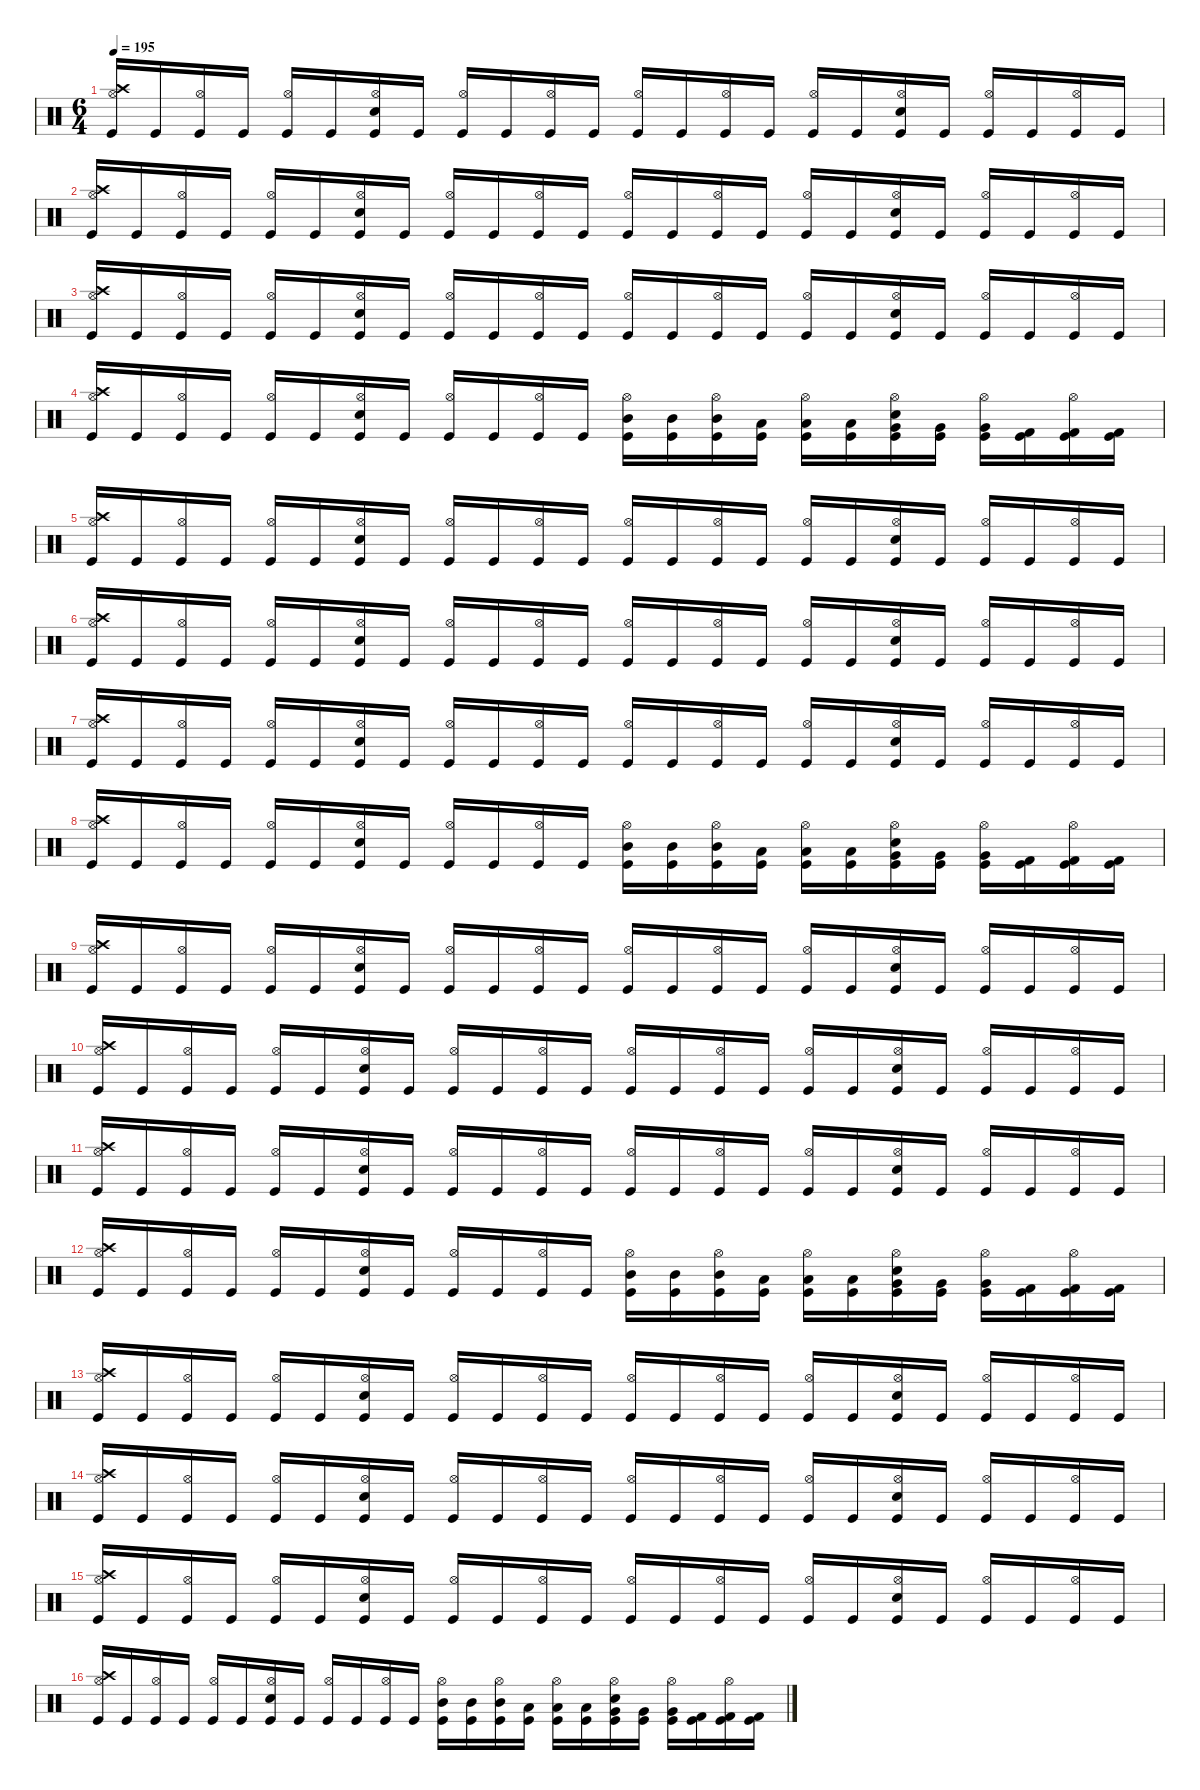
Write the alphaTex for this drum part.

\defaultSystemsLayout 4
\hideDynamics
\bracketExtendMode nobrackets
\singleTrackTrackNamePolicy hidden
\multiTrackTrackNamePolicy hidden
\firstSystemTrackNameMode fullname
\firstSystemTrackNameOrientation horizontal
\otherSystemsTrackNameOrientation horizontal
\track ("Percussion" "drm.") {defaultSystemsLayout 2 instrument percussion}
\staff {score}
\articulation defaults
\ts (6 4)
\tempo 195
\clef neutral
\ks c
("Crash high (hit)" "Hi-Hat (open)" "Kick (hit)").16{dy f beam Up} "Kick (hit)".16{beam Up} ("Hi-Hat (open)" "Kick (hit)").16{beam Up} "Kick (hit)".16{beam Up} ("Hi-Hat (open)" "Kick (hit)").16{beam Up} "Kick (hit)".16{beam Up} ("Snare (hit) 2" "Hi-Hat (open)" "Kick (hit)").16{beam Up} "Kick (hit)".16{beam Up} ("Hi-Hat (open)" "Kick (hit)").16{beam Up} "Kick (hit)".16{beam Up} ("Hi-Hat (open)" "Kick (hit)").16{beam Up} "Kick (hit)".16{beam Up} ("Hi-Hat (open)" "Kick (hit)").16{beam Up} "Kick (hit)".16{beam Up} ("Hi-Hat (open)" "Kick (hit)").16{beam Up} "Kick (hit)".16{beam Up} ("Hi-Hat (open)" "Kick (hit)").16{beam Up} "Kick (hit)".16{beam Up} ("Snare (hit) 2" "Hi-Hat (open)" "Kick (hit)").16{beam Up} "Kick (hit)".16{beam Up} ("Hi-Hat (open)" "Kick (hit)").16{beam Up} "Kick (hit)".16{beam Up} ("Hi-Hat (open)" "Kick (hit)").16{beam Up} "Kick (hit)".16{beam Up} |
("Crash high (hit)" "Hi-Hat (open)" "Kick (hit)").16{beam Up} "Kick (hit)".16{beam Up} ("Hi-Hat (open)" "Kick (hit)").16{beam Up} "Kick (hit)".16{beam Up} ("Hi-Hat (open)" "Kick (hit)").16{beam Up} "Kick (hit)".16{beam Up} ("Snare (hit) 2" "Hi-Hat (open)" "Kick (hit)").16{beam Up} "Kick (hit)".16{beam Up} ("Hi-Hat (open)" "Kick (hit)").16{beam Up} "Kick (hit)".16{beam Up} ("Hi-Hat (open)" "Kick (hit)").16{beam Up} "Kick (hit)".16{beam Up} ("Hi-Hat (open)" "Kick (hit)").16{beam Up} "Kick (hit)".16{beam Up} ("Hi-Hat (open)" "Kick (hit)").16{beam Up} "Kick (hit)".16{beam Up} ("Hi-Hat (open)" "Kick (hit)").16{beam Up} "Kick (hit)".16{beam Up} ("Snare (hit) 2" "Hi-Hat (open)" "Kick (hit)").16{beam Up} "Kick (hit)".16{beam Up} ("Hi-Hat (open)" "Kick (hit)").16{beam Up} "Kick (hit)".16{beam Up} ("Hi-Hat (open)" "Kick (hit)").16{beam Up} "Kick (hit)".16{beam Up} |
("Crash high (hit)" "Hi-Hat (open)" "Kick (hit)").16{beam Up} "Kick (hit)".16{beam Up} ("Hi-Hat (open)" "Kick (hit)").16{beam Up} "Kick (hit)".16{beam Up} ("Hi-Hat (open)" "Kick (hit)").16{beam Up} "Kick (hit)".16{beam Up} ("Snare (hit) 2" "Hi-Hat (open)" "Kick (hit)").16{beam Up} "Kick (hit)".16{beam Up} ("Hi-Hat (open)" "Kick (hit)").16{beam Up} "Kick (hit)".16{beam Up} ("Hi-Hat (open)" "Kick (hit)").16{beam Up} "Kick (hit)".16{beam Up} ("Hi-Hat (open)" "Kick (hit)").16{beam Up} "Kick (hit)".16{beam Up} ("Hi-Hat (open)" "Kick (hit)").16{beam Up} "Kick (hit)".16{beam Up} ("Hi-Hat (open)" "Kick (hit)").16{beam Up} "Kick (hit)".16{beam Up} ("Snare (hit) 2" "Hi-Hat (open)" "Kick (hit)").16{beam Up} "Kick (hit)".16{beam Up} ("Hi-Hat (open)" "Kick (hit)").16{beam Up} "Kick (hit)".16{beam Up} ("Hi-Hat (open)" "Kick (hit)").16{beam Up} "Kick (hit)".16{beam Up} |
("Crash high (hit)" "Hi-Hat (open)" "Kick (hit)").16{beam Up} "Kick (hit)".16{beam Up} ("Hi-Hat (open)" "Kick (hit)").16{beam Up} "Kick (hit)".16{beam Up} ("Hi-Hat (open)" "Kick (hit)").16{beam Up} "Kick (hit)".16{beam Up} ("Snare (hit) 2" "Hi-Hat (open)" "Kick (hit)").16{beam Up} "Kick (hit)".16{beam Up} ("Hi-Hat (open)" "Kick (hit)").16{beam Up} "Kick (hit)".16{beam Up} ("Hi-Hat (open)" "Kick (hit)").16{beam Up} "Kick (hit)".16{beam Up} ("Hi-Hat (open)" "Mid Tom (hit)" "Kick (hit)").16{beam Down} ("Mid Tom (hit)" "Kick (hit)").16{beam Down} ("Hi-Hat (open)" "Mid Tom (hit)" "Kick (hit)").16{beam Down} ("Low Tom (hit)" "Kick (hit)").16{beam Down} ("Hi-Hat (open)" "Low Tom (hit)" "Kick (hit)").16{beam Down} ("Low Tom (hit)" "Kick (hit)").16{beam Down} ("Snare (hit) 2" "Hi-Hat (open)" "Very Low Tom (hit)" "Kick (hit)").16{beam Down} ("Very Low Tom (hit)" "Kick (hit)").16{beam Down} ("Hi-Hat (open)" "Very Low Tom (hit)" "Kick (hit)").16{beam Down} ("Kick (hit) 2" "Kick (hit)").16{beam Down} ("Hi-Hat (open)" "Kick (hit) 2" "Kick (hit)").16{beam Down} ("Kick (hit) 2" "Kick (hit)").16{beam Down} |
("Crash high (hit)" "Hi-Hat (open)" "Kick (hit)").16{beam Up} "Kick (hit)".16{beam Up} ("Hi-Hat (open)" "Kick (hit)").16{beam Up} "Kick (hit)".16{beam Up} ("Hi-Hat (open)" "Kick (hit)").16{beam Up} "Kick (hit)".16{beam Up} ("Snare (hit) 2" "Hi-Hat (open)" "Kick (hit)").16{beam Up} "Kick (hit)".16{beam Up} ("Hi-Hat (open)" "Kick (hit)").16{beam Up} "Kick (hit)".16{beam Up} ("Hi-Hat (open)" "Kick (hit)").16{beam Up} "Kick (hit)".16{beam Up} ("Hi-Hat (open)" "Kick (hit)").16{beam Up} "Kick (hit)".16{beam Up} ("Hi-Hat (open)" "Kick (hit)").16{beam Up} "Kick (hit)".16{beam Up} ("Hi-Hat (open)" "Kick (hit)").16{beam Up} "Kick (hit)".16{beam Up} ("Snare (hit) 2" "Hi-Hat (open)" "Kick (hit)").16{beam Up} "Kick (hit)".16{beam Up} ("Hi-Hat (open)" "Kick (hit)").16{beam Up} "Kick (hit)".16{beam Up} ("Hi-Hat (open)" "Kick (hit)").16{beam Up} "Kick (hit)".16{beam Up} |
("Crash high (hit)" "Hi-Hat (open)" "Kick (hit)").16{beam Up} "Kick (hit)".16{beam Up} ("Hi-Hat (open)" "Kick (hit)").16{beam Up} "Kick (hit)".16{beam Up} ("Hi-Hat (open)" "Kick (hit)").16{beam Up} "Kick (hit)".16{beam Up} ("Snare (hit) 2" "Hi-Hat (open)" "Kick (hit)").16{beam Up} "Kick (hit)".16{beam Up} ("Hi-Hat (open)" "Kick (hit)").16{beam Up} "Kick (hit)".16{beam Up} ("Hi-Hat (open)" "Kick (hit)").16{beam Up} "Kick (hit)".16{beam Up} ("Hi-Hat (open)" "Kick (hit)").16{beam Up} "Kick (hit)".16{beam Up} ("Hi-Hat (open)" "Kick (hit)").16{beam Up} "Kick (hit)".16{beam Up} ("Hi-Hat (open)" "Kick (hit)").16{beam Up} "Kick (hit)".16{beam Up} ("Snare (hit) 2" "Hi-Hat (open)" "Kick (hit)").16{beam Up} "Kick (hit)".16{beam Up} ("Hi-Hat (open)" "Kick (hit)").16{beam Up} "Kick (hit)".16{beam Up} ("Hi-Hat (open)" "Kick (hit)").16{beam Up} "Kick (hit)".16{beam Up} |
("Crash high (hit)" "Hi-Hat (open)" "Kick (hit)").16{beam Up} "Kick (hit)".16{beam Up} ("Hi-Hat (open)" "Kick (hit)").16{beam Up} "Kick (hit)".16{beam Up} ("Hi-Hat (open)" "Kick (hit)").16{beam Up} "Kick (hit)".16{beam Up} ("Snare (hit) 2" "Hi-Hat (open)" "Kick (hit)").16{beam Up} "Kick (hit)".16{beam Up} ("Hi-Hat (open)" "Kick (hit)").16{beam Up} "Kick (hit)".16{beam Up} ("Hi-Hat (open)" "Kick (hit)").16{beam Up} "Kick (hit)".16{beam Up} ("Hi-Hat (open)" "Kick (hit)").16{beam Up} "Kick (hit)".16{beam Up} ("Hi-Hat (open)" "Kick (hit)").16{beam Up} "Kick (hit)".16{beam Up} ("Hi-Hat (open)" "Kick (hit)").16{beam Up} "Kick (hit)".16{beam Up} ("Snare (hit) 2" "Hi-Hat (open)" "Kick (hit)").16{beam Up} "Kick (hit)".16{beam Up} ("Hi-Hat (open)" "Kick (hit)").16{beam Up} "Kick (hit)".16{beam Up} ("Hi-Hat (open)" "Kick (hit)").16{beam Up} "Kick (hit)".16{beam Up} |
("Crash high (hit)" "Hi-Hat (open)" "Kick (hit)").16{beam Up} "Kick (hit)".16{beam Up} ("Hi-Hat (open)" "Kick (hit)").16{beam Up} "Kick (hit)".16{beam Up} ("Hi-Hat (open)" "Kick (hit)").16{beam Up} "Kick (hit)".16{beam Up} ("Snare (hit) 2" "Hi-Hat (open)" "Kick (hit)").16{beam Up} "Kick (hit)".16{beam Up} ("Hi-Hat (open)" "Kick (hit)").16{beam Up} "Kick (hit)".16{beam Up} ("Hi-Hat (open)" "Kick (hit)").16{beam Up} "Kick (hit)".16{beam Up} ("Hi-Hat (open)" "Mid Tom (hit)" "Kick (hit)").16{beam Down} ("Mid Tom (hit)" "Kick (hit)").16{beam Down} ("Hi-Hat (open)" "Mid Tom (hit)" "Kick (hit)").16{beam Down} ("Low Tom (hit)" "Kick (hit)").16{beam Down} ("Hi-Hat (open)" "Low Tom (hit)" "Kick (hit)").16{beam Down} ("Low Tom (hit)" "Kick (hit)").16{beam Down} ("Snare (hit) 2" "Hi-Hat (open)" "Very Low Tom (hit)" "Kick (hit)").16{beam Down} ("Very Low Tom (hit)" "Kick (hit)").16{beam Down} ("Hi-Hat (open)" "Very Low Tom (hit)" "Kick (hit)").16{beam Down} ("Kick (hit) 2" "Kick (hit)").16{beam Down} ("Hi-Hat (open)" "Kick (hit) 2" "Kick (hit)").16{beam Down} ("Kick (hit) 2" "Kick (hit)").16{beam Down} |
("Crash high (hit)" "Hi-Hat (open)" "Kick (hit)").16{beam Up} "Kick (hit)".16{beam Up} ("Hi-Hat (open)" "Kick (hit)").16{beam Up} "Kick (hit)".16{beam Up} ("Hi-Hat (open)" "Kick (hit)").16{beam Up} "Kick (hit)".16{beam Up} ("Snare (hit) 2" "Hi-Hat (open)" "Kick (hit)").16{beam Up} "Kick (hit)".16{beam Up} ("Hi-Hat (open)" "Kick (hit)").16{beam Up} "Kick (hit)".16{beam Up} ("Hi-Hat (open)" "Kick (hit)").16{beam Up} "Kick (hit)".16{beam Up} ("Hi-Hat (open)" "Kick (hit)").16{beam Up} "Kick (hit)".16{beam Up} ("Hi-Hat (open)" "Kick (hit)").16{beam Up} "Kick (hit)".16{beam Up} ("Hi-Hat (open)" "Kick (hit)").16{beam Up} "Kick (hit)".16{beam Up} ("Snare (hit) 2" "Hi-Hat (open)" "Kick (hit)").16{beam Up} "Kick (hit)".16{beam Up} ("Hi-Hat (open)" "Kick (hit)").16{beam Up} "Kick (hit)".16{beam Up} ("Hi-Hat (open)" "Kick (hit)").16{beam Up} "Kick (hit)".16{beam Up} |
("Crash high (hit)" "Hi-Hat (open)" "Kick (hit)").16{beam Up} "Kick (hit)".16{beam Up} ("Hi-Hat (open)" "Kick (hit)").16{beam Up} "Kick (hit)".16{beam Up} ("Hi-Hat (open)" "Kick (hit)").16{beam Up} "Kick (hit)".16{beam Up} ("Snare (hit) 2" "Hi-Hat (open)" "Kick (hit)").16{beam Up} "Kick (hit)".16{beam Up} ("Hi-Hat (open)" "Kick (hit)").16{beam Up} "Kick (hit)".16{beam Up} ("Hi-Hat (open)" "Kick (hit)").16{beam Up} "Kick (hit)".16{beam Up} ("Hi-Hat (open)" "Kick (hit)").16{beam Up} "Kick (hit)".16{beam Up} ("Hi-Hat (open)" "Kick (hit)").16{beam Up} "Kick (hit)".16{beam Up} ("Hi-Hat (open)" "Kick (hit)").16{beam Up} "Kick (hit)".16{beam Up} ("Snare (hit) 2" "Hi-Hat (open)" "Kick (hit)").16{beam Up} "Kick (hit)".16{beam Up} ("Hi-Hat (open)" "Kick (hit)").16{beam Up} "Kick (hit)".16{beam Up} ("Hi-Hat (open)" "Kick (hit)").16{beam Up} "Kick (hit)".16{beam Up} |
("Crash high (hit)" "Hi-Hat (open)" "Kick (hit)").16{beam Up} "Kick (hit)".16{beam Up} ("Hi-Hat (open)" "Kick (hit)").16{beam Up} "Kick (hit)".16{beam Up} ("Hi-Hat (open)" "Kick (hit)").16{beam Up} "Kick (hit)".16{beam Up} ("Snare (hit) 2" "Hi-Hat (open)" "Kick (hit)").16{beam Up} "Kick (hit)".16{beam Up} ("Hi-Hat (open)" "Kick (hit)").16{beam Up} "Kick (hit)".16{beam Up} ("Hi-Hat (open)" "Kick (hit)").16{beam Up} "Kick (hit)".16{beam Up} ("Hi-Hat (open)" "Kick (hit)").16{beam Up} "Kick (hit)".16{beam Up} ("Hi-Hat (open)" "Kick (hit)").16{beam Up} "Kick (hit)".16{beam Up} ("Hi-Hat (open)" "Kick (hit)").16{beam Up} "Kick (hit)".16{beam Up} ("Snare (hit) 2" "Hi-Hat (open)" "Kick (hit)").16{beam Up} "Kick (hit)".16{beam Up} ("Hi-Hat (open)" "Kick (hit)").16{beam Up} "Kick (hit)".16{beam Up} ("Hi-Hat (open)" "Kick (hit)").16{beam Up} "Kick (hit)".16{beam Up} |
("Crash high (hit)" "Hi-Hat (open)" "Kick (hit)").16{beam Up} "Kick (hit)".16{beam Up} ("Hi-Hat (open)" "Kick (hit)").16{beam Up} "Kick (hit)".16{beam Up} ("Hi-Hat (open)" "Kick (hit)").16{beam Up} "Kick (hit)".16{beam Up} ("Snare (hit) 2" "Hi-Hat (open)" "Kick (hit)").16{beam Up} "Kick (hit)".16{beam Up} ("Hi-Hat (open)" "Kick (hit)").16{beam Up} "Kick (hit)".16{beam Up} ("Hi-Hat (open)" "Kick (hit)").16{beam Up} "Kick (hit)".16{beam Up} ("Hi-Hat (open)" "Mid Tom (hit)" "Kick (hit)").16{beam Down} ("Mid Tom (hit)" "Kick (hit)").16{beam Down} ("Hi-Hat (open)" "Mid Tom (hit)" "Kick (hit)").16{beam Down} ("Low Tom (hit)" "Kick (hit)").16{beam Down} ("Hi-Hat (open)" "Low Tom (hit)" "Kick (hit)").16{beam Down} ("Low Tom (hit)" "Kick (hit)").16{beam Down} ("Snare (hit) 2" "Hi-Hat (open)" "Very Low Tom (hit)" "Kick (hit)").16{beam Down} ("Very Low Tom (hit)" "Kick (hit)").16{beam Down} ("Hi-Hat (open)" "Very Low Tom (hit)" "Kick (hit)").16{beam Down} ("Kick (hit) 2" "Kick (hit)").16{beam Down} ("Hi-Hat (open)" "Kick (hit) 2" "Kick (hit)").16{beam Down} ("Kick (hit) 2" "Kick (hit)").16{beam Down} |
("Crash high (hit)" "Hi-Hat (open)" "Kick (hit)").16{beam Up} "Kick (hit)".16{beam Up} ("Hi-Hat (open)" "Kick (hit)").16{beam Up} "Kick (hit)".16{beam Up} ("Hi-Hat (open)" "Kick (hit)").16{beam Up} "Kick (hit)".16{beam Up} ("Snare (hit) 2" "Hi-Hat (open)" "Kick (hit)").16{beam Up} "Kick (hit)".16{beam Up} ("Hi-Hat (open)" "Kick (hit)").16{beam Up} "Kick (hit)".16{beam Up} ("Hi-Hat (open)" "Kick (hit)").16{beam Up} "Kick (hit)".16{beam Up} ("Hi-Hat (open)" "Kick (hit)").16{beam Up} "Kick (hit)".16{beam Up} ("Hi-Hat (open)" "Kick (hit)").16{beam Up} "Kick (hit)".16{beam Up} ("Hi-Hat (open)" "Kick (hit)").16{beam Up} "Kick (hit)".16{beam Up} ("Snare (hit) 2" "Hi-Hat (open)" "Kick (hit)").16{beam Up} "Kick (hit)".16{beam Up} ("Hi-Hat (open)" "Kick (hit)").16{beam Up} "Kick (hit)".16{beam Up} ("Hi-Hat (open)" "Kick (hit)").16{beam Up} "Kick (hit)".16{beam Up} |
("Crash high (hit)" "Hi-Hat (open)" "Kick (hit)").16{beam Up} "Kick (hit)".16{beam Up} ("Hi-Hat (open)" "Kick (hit)").16{beam Up} "Kick (hit)".16{beam Up} ("Hi-Hat (open)" "Kick (hit)").16{beam Up} "Kick (hit)".16{beam Up} ("Snare (hit) 2" "Hi-Hat (open)" "Kick (hit)").16{beam Up} "Kick (hit)".16{beam Up} ("Hi-Hat (open)" "Kick (hit)").16{beam Up} "Kick (hit)".16{beam Up} ("Hi-Hat (open)" "Kick (hit)").16{beam Up} "Kick (hit)".16{beam Up} ("Hi-Hat (open)" "Kick (hit)").16{beam Up} "Kick (hit)".16{beam Up} ("Hi-Hat (open)" "Kick (hit)").16{beam Up} "Kick (hit)".16{beam Up} ("Hi-Hat (open)" "Kick (hit)").16{beam Up} "Kick (hit)".16{beam Up} ("Snare (hit) 2" "Hi-Hat (open)" "Kick (hit)").16{beam Up} "Kick (hit)".16{beam Up} ("Hi-Hat (open)" "Kick (hit)").16{beam Up} "Kick (hit)".16{beam Up} ("Hi-Hat (open)" "Kick (hit)").16{beam Up} "Kick (hit)".16{beam Up} |
("Crash high (hit)" "Hi-Hat (open)" "Kick (hit)").16{beam Up} "Kick (hit)".16{beam Up} ("Hi-Hat (open)" "Kick (hit)").16{beam Up} "Kick (hit)".16{beam Up} ("Hi-Hat (open)" "Kick (hit)").16{beam Up} "Kick (hit)".16{beam Up} ("Snare (hit) 2" "Hi-Hat (open)" "Kick (hit)").16{beam Up} "Kick (hit)".16{beam Up} ("Hi-Hat (open)" "Kick (hit)").16{beam Up} "Kick (hit)".16{beam Up} ("Hi-Hat (open)" "Kick (hit)").16{beam Up} "Kick (hit)".16{beam Up} ("Hi-Hat (open)" "Kick (hit)").16{beam Up} "Kick (hit)".16{beam Up} ("Hi-Hat (open)" "Kick (hit)").16{beam Up} "Kick (hit)".16{beam Up} ("Hi-Hat (open)" "Kick (hit)").16{beam Up} "Kick (hit)".16{beam Up} ("Snare (hit) 2" "Hi-Hat (open)" "Kick (hit)").16{beam Up} "Kick (hit)".16{beam Up} ("Hi-Hat (open)" "Kick (hit)").16{beam Up} "Kick (hit)".16{beam Up} ("Hi-Hat (open)" "Kick (hit)").16{beam Up} "Kick (hit)".16{beam Up} |
("Crash high (hit)" "Hi-Hat (open)" "Kick (hit)").16{beam Up} "Kick (hit)".16{beam Up} ("Hi-Hat (open)" "Kick (hit)").16{beam Up} "Kick (hit)".16{beam Up} ("Hi-Hat (open)" "Kick (hit)").16{beam Up} "Kick (hit)".16{beam Up} ("Snare (hit) 2" "Hi-Hat (open)" "Kick (hit)").16{beam Up} "Kick (hit)".16{beam Up} ("Hi-Hat (open)" "Kick (hit)").16{beam Up} "Kick (hit)".16{beam Up} ("Hi-Hat (open)" "Kick (hit)").16{beam Up} "Kick (hit)".16{beam Up} ("Hi-Hat (open)" "Mid Tom (hit)" "Kick (hit)").16{beam Down} ("Mid Tom (hit)" "Kick (hit)").16{beam Down} ("Hi-Hat (open)" "Mid Tom (hit)" "Kick (hit)").16{beam Down} ("Low Tom (hit)" "Kick (hit)").16{beam Down} ("Hi-Hat (open)" "Low Tom (hit)" "Kick (hit)").16{beam Down} ("Low Tom (hit)" "Kick (hit)").16{beam Down} ("Snare (hit) 2" "Hi-Hat (open)" "Very Low Tom (hit)" "Kick (hit)").16{beam Down} ("Very Low Tom (hit)" "Kick (hit)").16{beam Down} ("Hi-Hat (open)" "Very Low Tom (hit)" "Kick (hit)").16{beam Down} ("Kick (hit) 2" "Kick (hit)").16{beam Down} ("Hi-Hat (open)" "Kick (hit) 2" "Kick (hit)").16{beam Down} ("Kick (hit) 2" "Kick (hit)").16{beam Down}
